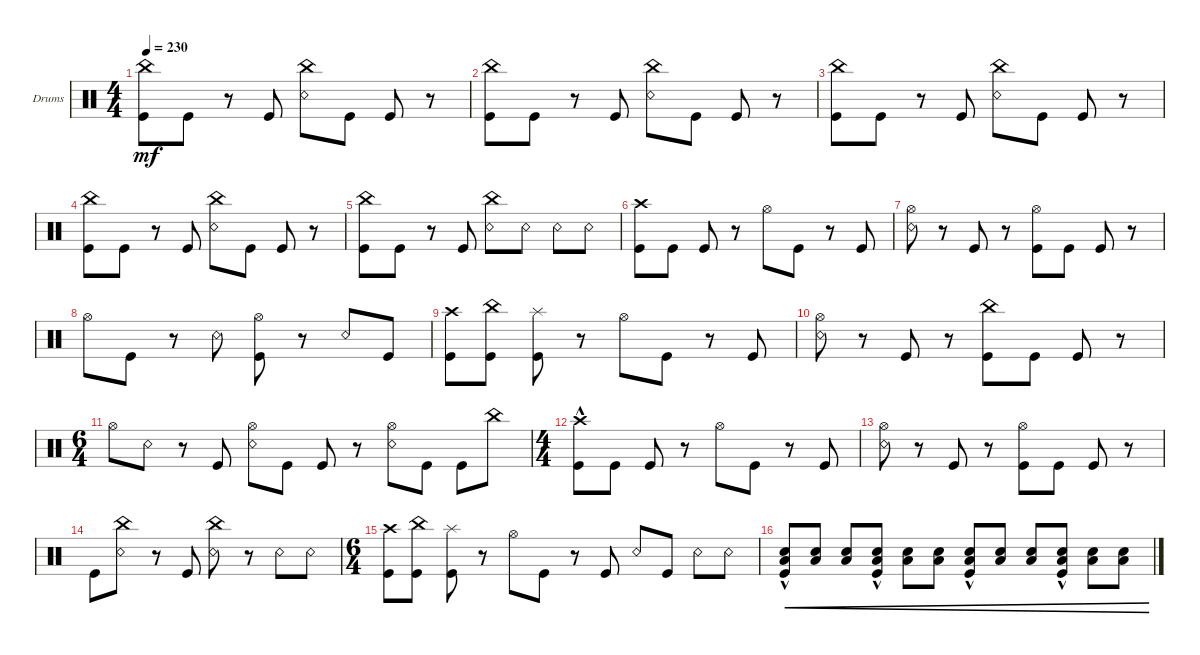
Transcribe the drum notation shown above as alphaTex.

\bracketExtendMode groupsimilarinstruments
\firstSystemTrackNameOrientation horizontal
\otherSystemsTrackNameOrientation horizontal
\track ("Drumkit" "Drums") {instrument percussion}
\staff {score}
\articulation defaults
\ts (4 4)
\tempo 230
\clef neutral
\ks c
("Kick (hit)" "China (hit)").8{dy mf} "Kick (hit)".8 r.8 "Kick (hit)".8 ("Snare (rim shot)" "China (hit)").8 "Kick (hit)".8 "Kick (hit)".8 r.8 |
("Kick (hit)" "China (hit)").8 "Kick (hit)".8 r.8 "Kick (hit)".8 ("Snare (rim shot)" "China (hit)").8 "Kick (hit)".8 "Kick (hit)".8 r.8 |
("Kick (hit)" "China (hit)").8 "Kick (hit)".8 r.8 "Kick (hit)".8 ("Snare (rim shot)" "China (hit)").8 "Kick (hit)".8 "Kick (hit)".8 r.8 |
("Kick (hit)" "China (hit)").8 "Kick (hit)".8 r.8 "Kick (hit)".8 ("Snare (rim shot)" "China (hit)").8 "Kick (hit)".8 "Kick (hit)".8 r.8 |
("Kick (hit)" "China (hit)").8 "Kick (hit)".8 r.8 "Kick (hit)".8 ("Snare (rim shot)" "China (hit)").8 "Snare (rim shot)".8 "Snare (rim shot)".8 "Snare (rim shot)".8 |
("Kick (hit)" "Crash high (hit)").8 "Kick (hit)".8 "Kick (hit)".8 r.8 "Hi-Hat (open)".8 "Kick (hit)".8 r.8 "Kick (hit)".8 |
("Snare (rim shot)" "Hi-Hat (open)").8 r.8 "Kick (hit)".8 r.8 ("Kick (hit)" "Hi-Hat (open)").8 "Kick (hit)".8 "Kick (hit)".8 r.8 |
"Hi-Hat (open)".8 "Kick (hit)".8 r.8 "Snare (rim shot)".8 ("Hi-Hat (open)" "Kick (hit)").8 r.8 "Snare (rim shot)".8 "Kick (hit)".8 |
("Kick (hit)" "Crash high (hit)").8 ("Kick (hit)" "China (hit)").8 ("Kick (hit)" "Splash (hit)").8 r.8 "Hi-Hat (open)".8 "Kick (hit)".8 r.8 "Kick (hit)".8 |
("Snare (rim shot)" "Hi-Hat (open)").8 r.8 "Kick (hit)".8 r.8 ("Kick (hit)" "China (hit)").8 "Kick (hit)".8 "Kick (hit)".8 r.8 |
\ts (6 4)
"Hi-Hat (open)".8 "Snare (rim shot)".8 r.8 "Kick (hit)".8 ("Snare (rim shot)" "Hi-Hat (open)").8 "Kick (hit)".8 "Kick (hit)".8 r.8 ("Hi-Hat (open)" "Snare (rim shot)").8 "Kick (hit)".8 "Kick (hit)".8 "China (hit)".8 |
\ts (4 4)
("Kick (hit)" "Crash high (hit)"{hac}).8 "Kick (hit)".8 "Kick (hit)".8 r.8 "Hi-Hat (open)".8 "Kick (hit)".8 r.8 "Kick (hit)".8 |
("Snare (rim shot)" "Hi-Hat (open)").8 r.8 "Kick (hit)".8 r.8 ("Kick (hit)" "Hi-Hat (open)").8 "Kick (hit)".8 "Kick (hit)".8 r.8 |
"Kick (hit)".8 ("Snare (rim shot)" "China (hit)").8 r.8 "Kick (hit)".8 ("Snare (rim shot)" "China (hit)").8 r.8 "Snare (rim shot)".8 "Snare (rim shot)".8 |
\ts (6 4)
("Kick (hit)" "Crash high (hit)").8 ("Kick (hit)" "China (hit)").8 ("Kick (hit)" "Splash (hit)").8 r.8 "Hi-Hat (open)".8 "Kick (hit)".8 r.8 "Kick (hit)".8 "Snare (rim shot)".8 "Kick (hit)".8 "Snare (rim shot)".8 "Snare (rim shot)".8 |
("Snare (hit) 2"{hac} "Low Tom (hit)" "Kick (hit)").8{cre} ("Snare (hit) 2" "Low Tom (hit)").8{cre} ("Snare (hit) 2" "Low Tom (hit)").8{cre} ("Snare (hit) 2"{hac} "Low Tom (hit)" "Kick (hit)").8{cre} ("Snare (hit) 2" "Low Tom (hit)").8{cre} ("Snare (hit) 2" "Low Tom (hit)").8{cre} ("Snare (hit) 2"{hac} "Low Tom (hit)" "Kick (hit)").8{cre} ("Snare (hit) 2" "Low Tom (hit)").8{cre} ("Snare (hit) 2" "Low Tom (hit)").8{cre} ("Snare (hit) 2"{hac} "Low Tom (hit)" "Kick (hit)").8{cre} ("Snare (hit) 2" "Low Tom (hit)").8{cre} ("Snare (hit) 2" "Low Tom (hit)").8{cre}
